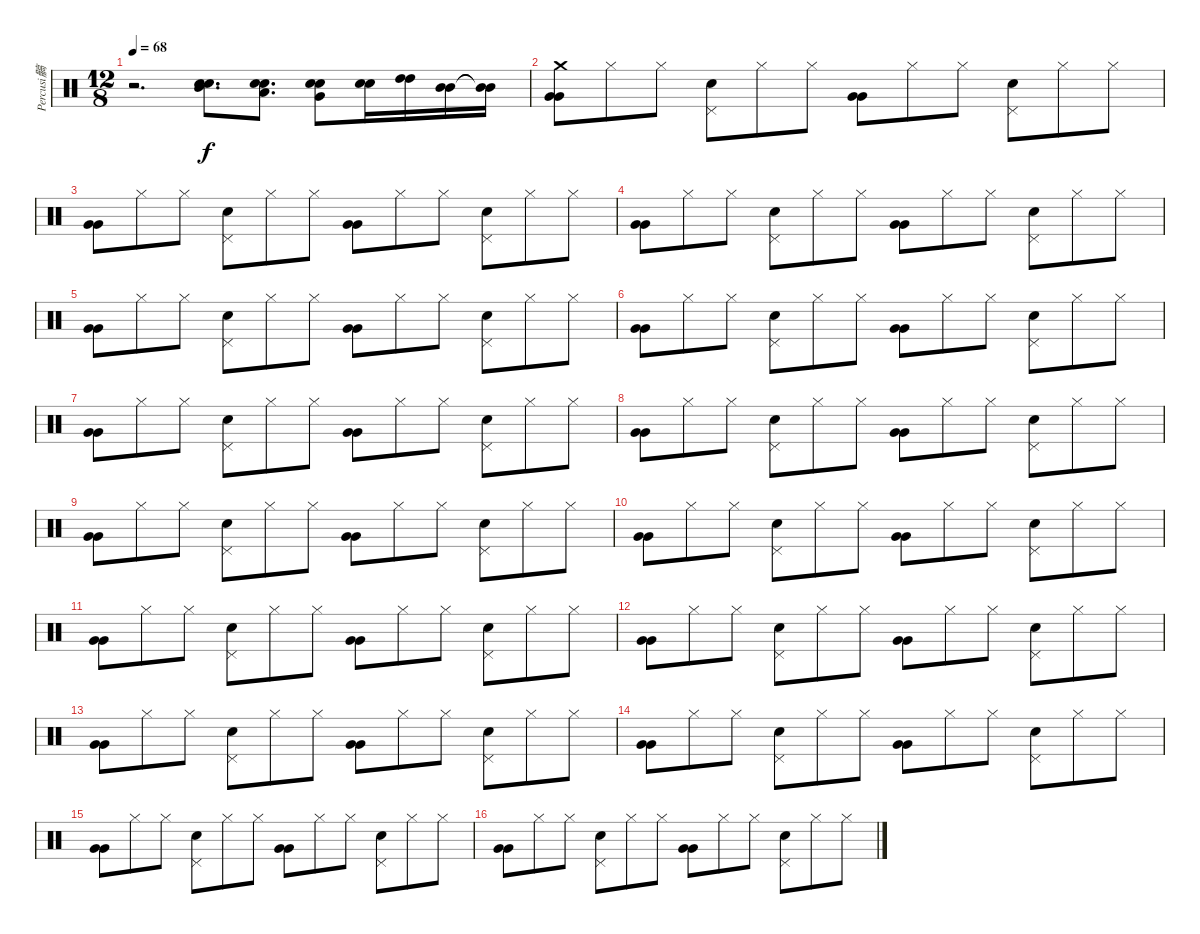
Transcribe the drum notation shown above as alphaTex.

\track ("Percusi髇" "Percusi髇") {instrument percussion}
\staff {score}
\articulation defaults
\ts (12 8)
\tempo 68
\clef neutral
\ks c
r.2{d dy f} ("Snare (hit) 2" "Mid Tom (hit)" "Snare (hit) 2").8{d} ("Snare (hit) 2" "Low Tom (hit)" "Snare (hit) 2").8{d} ("Snare (hit) 2" "Very Low Tom (hit)" "Snare (hit) 2").8 ("Snare (hit) 2" "Snare (hit) 2").16 ("High Tom (hit)" "High Tom (hit)").16 ("Mid Tom (hit)" "Mid Tom (hit)").16 ("Mid Tom (hit)"{t} "Mid Tom (hit)"{t}).16 |
("Very Low Tom (hit)" "Very Low Tom (hit)" "Crash medium (hit)").8 "Hi-Hat (closed)".8 "Hi-Hat (closed)".8 ("Pedal Hi-Hat (hit)" "Electric Snare (hit)").8 "Hi-Hat (closed)".8 "Hi-Hat (closed)".8 ("Very Low Tom (hit)" "Very Low Tom (hit)").8 "Hi-Hat (closed)".8 "Hi-Hat (closed)".8 ("Pedal Hi-Hat (hit)" "Electric Snare (hit)").8 "Hi-Hat (closed)".8 "Hi-Hat (closed)".8 |
("Very Low Tom (hit)" "Very Low Tom (hit)").8 "Hi-Hat (closed)".8 "Hi-Hat (closed)".8 ("Pedal Hi-Hat (hit)" "Electric Snare (hit)").8 "Hi-Hat (closed)".8 "Hi-Hat (closed)".8 ("Very Low Tom (hit)" "Very Low Tom (hit)").8 "Hi-Hat (closed)".8 "Hi-Hat (closed)".8 ("Pedal Hi-Hat (hit)" "Electric Snare (hit)").8 "Hi-Hat (closed)".8 "Hi-Hat (closed)".8 |
("Very Low Tom (hit)" "Very Low Tom (hit)").8 "Hi-Hat (closed)".8 "Hi-Hat (closed)".8 ("Pedal Hi-Hat (hit)" "Electric Snare (hit)").8 "Hi-Hat (closed)".8 "Hi-Hat (closed)".8 ("Very Low Tom (hit)" "Very Low Tom (hit)").8 "Hi-Hat (closed)".8 "Hi-Hat (closed)".8 ("Pedal Hi-Hat (hit)" "Electric Snare (hit)").8 "Hi-Hat (closed)".8 "Hi-Hat (closed)".8 |
("Very Low Tom (hit)" "Very Low Tom (hit)").8 "Hi-Hat (closed)".8 "Hi-Hat (closed)".8 ("Pedal Hi-Hat (hit)" "Electric Snare (hit)").8 "Hi-Hat (closed)".8 "Hi-Hat (closed)".8 ("Very Low Tom (hit)" "Very Low Tom (hit)").8 "Hi-Hat (closed)".8 "Hi-Hat (closed)".8 ("Pedal Hi-Hat (hit)" "Electric Snare (hit)").8 "Hi-Hat (closed)".8 "Hi-Hat (closed)".8 |
("Very Low Tom (hit)" "Very Low Tom (hit)").8 "Hi-Hat (closed)".8 "Hi-Hat (closed)".8 ("Pedal Hi-Hat (hit)" "Electric Snare (hit)").8 "Hi-Hat (closed)".8 "Hi-Hat (closed)".8 ("Very Low Tom (hit)" "Very Low Tom (hit)").8 "Hi-Hat (closed)".8 "Hi-Hat (closed)".8 ("Pedal Hi-Hat (hit)" "Electric Snare (hit)").8 "Hi-Hat (closed)".8 "Hi-Hat (closed)".8 |
("Very Low Tom (hit)" "Very Low Tom (hit)").8 "Hi-Hat (closed)".8 "Hi-Hat (closed)".8 ("Pedal Hi-Hat (hit)" "Electric Snare (hit)").8 "Hi-Hat (closed)".8 "Hi-Hat (closed)".8 ("Very Low Tom (hit)" "Very Low Tom (hit)").8 "Hi-Hat (closed)".8 "Hi-Hat (closed)".8 ("Pedal Hi-Hat (hit)" "Electric Snare (hit)").8 "Hi-Hat (closed)".8 "Hi-Hat (closed)".8 |
("Very Low Tom (hit)" "Very Low Tom (hit)").8 "Hi-Hat (closed)".8 "Hi-Hat (closed)".8 ("Pedal Hi-Hat (hit)" "Electric Snare (hit)").8 "Hi-Hat (closed)".8 "Hi-Hat (closed)".8 ("Very Low Tom (hit)" "Very Low Tom (hit)").8 "Hi-Hat (closed)".8 "Hi-Hat (closed)".8 ("Pedal Hi-Hat (hit)" "Electric Snare (hit)").8 "Hi-Hat (closed)".8 "Hi-Hat (closed)".8 |
("Very Low Tom (hit)" "Very Low Tom (hit)").8 "Hi-Hat (closed)".8 "Hi-Hat (closed)".8 ("Pedal Hi-Hat (hit)" "Electric Snare (hit)").8 "Hi-Hat (closed)".8 "Hi-Hat (closed)".8 ("Very Low Tom (hit)" "Very Low Tom (hit)").8 "Hi-Hat (closed)".8 "Hi-Hat (closed)".8 ("Pedal Hi-Hat (hit)" "Electric Snare (hit)").8 "Hi-Hat (closed)".8 "Hi-Hat (closed)".8 |
("Very Low Tom (hit)" "Very Low Tom (hit)").8 "Hi-Hat (closed)".8 "Hi-Hat (closed)".8 ("Pedal Hi-Hat (hit)" "Electric Snare (hit)").8 "Hi-Hat (closed)".8 "Hi-Hat (closed)".8 ("Very Low Tom (hit)" "Very Low Tom (hit)").8 "Hi-Hat (closed)".8 "Hi-Hat (closed)".8 ("Pedal Hi-Hat (hit)" "Electric Snare (hit)").8 "Hi-Hat (closed)".8 "Hi-Hat (closed)".8 |
("Very Low Tom (hit)" "Very Low Tom (hit)").8 "Hi-Hat (closed)".8 "Hi-Hat (closed)".8 ("Pedal Hi-Hat (hit)" "Electric Snare (hit)").8 "Hi-Hat (closed)".8 "Hi-Hat (closed)".8 ("Very Low Tom (hit)" "Very Low Tom (hit)").8 "Hi-Hat (closed)".8 "Hi-Hat (closed)".8 ("Pedal Hi-Hat (hit)" "Electric Snare (hit)").8 "Hi-Hat (closed)".8 "Hi-Hat (closed)".8 |
("Very Low Tom (hit)" "Very Low Tom (hit)").8 "Hi-Hat (closed)".8 "Hi-Hat (closed)".8 ("Pedal Hi-Hat (hit)" "Electric Snare (hit)").8 "Hi-Hat (closed)".8 "Hi-Hat (closed)".8 ("Very Low Tom (hit)" "Very Low Tom (hit)").8 "Hi-Hat (closed)".8 "Hi-Hat (closed)".8 ("Pedal Hi-Hat (hit)" "Electric Snare (hit)").8 "Hi-Hat (closed)".8 "Hi-Hat (closed)".8 |
("Very Low Tom (hit)" "Very Low Tom (hit)").8 "Hi-Hat (closed)".8 "Hi-Hat (closed)".8 ("Pedal Hi-Hat (hit)" "Electric Snare (hit)").8 "Hi-Hat (closed)".8 "Hi-Hat (closed)".8 ("Very Low Tom (hit)" "Very Low Tom (hit)").8 "Hi-Hat (closed)".8 "Hi-Hat (closed)".8 ("Pedal Hi-Hat (hit)" "Electric Snare (hit)").8 "Hi-Hat (closed)".8 "Hi-Hat (closed)".8 |
("Very Low Tom (hit)" "Very Low Tom (hit)").8 "Hi-Hat (closed)".8 "Hi-Hat (closed)".8 ("Pedal Hi-Hat (hit)" "Electric Snare (hit)").8 "Hi-Hat (closed)".8 "Hi-Hat (closed)".8 ("Very Low Tom (hit)" "Very Low Tom (hit)").8 "Hi-Hat (closed)".8 "Hi-Hat (closed)".8 ("Pedal Hi-Hat (hit)" "Electric Snare (hit)").8 "Hi-Hat (closed)".8 "Hi-Hat (closed)".8 |
("Very Low Tom (hit)" "Very Low Tom (hit)").8 "Hi-Hat (closed)".8 "Hi-Hat (closed)".8 ("Pedal Hi-Hat (hit)" "Electric Snare (hit)").8 "Hi-Hat (closed)".8 "Hi-Hat (closed)".8 ("Very Low Tom (hit)" "Very Low Tom (hit)").8 "Hi-Hat (closed)".8 "Hi-Hat (closed)".8 ("Pedal Hi-Hat (hit)" "Electric Snare (hit)").8 "Hi-Hat (closed)".8 "Hi-Hat (closed)".8 |
("Very Low Tom (hit)" "Very Low Tom (hit)").8 "Hi-Hat (closed)".8 "Hi-Hat (closed)".8 ("Pedal Hi-Hat (hit)" "Electric Snare (hit)").8 "Hi-Hat (closed)".8 "Hi-Hat (closed)".8 ("Very Low Tom (hit)" "Very Low Tom (hit)").8 "Hi-Hat (closed)".8 "Hi-Hat (closed)".8 ("Pedal Hi-Hat (hit)" "Electric Snare (hit)").8 "Hi-Hat (closed)".8 "Hi-Hat (closed)".8
